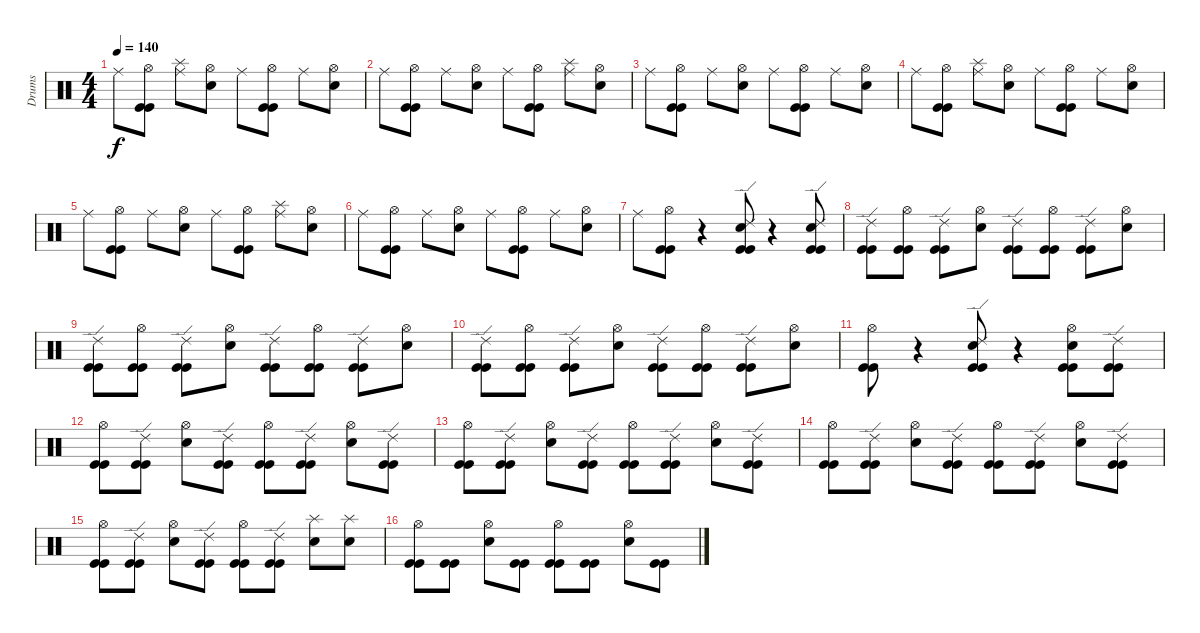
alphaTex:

\track ("Drums" "Drums") {instrument percussion}
\staff {score}
\articulation defaults
\ts (4 4)
\tempo 140
\clef neutral
\ks c "Ride (middle)".8{dy f}
("Hi-Hat (open)" "Kick (hit)" "Kick (hit)").8 ("Ride (middle)" "Splash (hit)").8 ("Hi-Hat (open)" "Electric Snare (hit)").8 "Ride (middle)".8 ("Hi-Hat (open)" "Kick (hit)" "Kick (hit)").8 "Ride (middle)".8 ("Hi-Hat (open)" "Electric Snare (hit)").8 |
"Ride (middle)".8 ("Hi-Hat (open)" "Kick (hit)" "Kick (hit)").8 "Ride (middle)".8 ("Hi-Hat (open)" "Electric Snare (hit)").8 "Ride (middle)".8 ("Hi-Hat (open)" "Kick (hit)" "Kick (hit)").8 ("Ride (middle)" "Splash (hit)").8 ("Hi-Hat (open)" "Electric Snare (hit)").8 |
"Ride (middle)".8 ("Hi-Hat (open)" "Kick (hit)" "Kick (hit)").8 "Ride (middle)".8 ("Hi-Hat (open)" "Electric Snare (hit)").8 "Ride (middle)".8 ("Hi-Hat (open)" "Kick (hit)" "Kick (hit)").8 "Ride (middle)".8 ("Hi-Hat (open)" "Electric Snare (hit)").8 |
"Ride (middle)".8 ("Hi-Hat (open)" "Kick (hit)" "Kick (hit)").8 ("Ride (middle)" "Splash (hit)").8 ("Hi-Hat (open)" "Electric Snare (hit)").8 "Ride (middle)".8 ("Hi-Hat (open)" "Kick (hit)" "Kick (hit)").8 "Ride (middle)".8 ("Hi-Hat (open)" "Electric Snare (hit)").8 |
"Ride (middle)".8 ("Hi-Hat (open)" "Kick (hit)" "Kick (hit)").8 "Ride (middle)".8 ("Hi-Hat (open)" "Electric Snare (hit)").8 "Ride (middle)".8 ("Hi-Hat (open)" "Kick (hit)" "Kick (hit)").8 ("Ride (middle)" "Splash (hit)").8 ("Hi-Hat (open)" "Electric Snare (hit)").8 |
"Ride (middle)".8 ("Hi-Hat (open)" "Kick (hit)" "Kick (hit)").8 "Ride (middle)".8 ("Hi-Hat (open)" "Electric Snare (hit)").8 "Ride (middle)".8 ("Hi-Hat (open)" "Kick (hit)" "Kick (hit)").8 "Ride (middle)".8 ("Hi-Hat (open)" "Electric Snare (hit)").8 |
"Ride (middle)".8 ("Hi-Hat (open)" "Kick (hit)" "Kick (hit)").8 r.4 ("Ride (edge) 2" "Electric Snare (hit)" "Kick (hit)" "Kick (hit)").8 r.4 ("Ride (edge) 2" "Electric Snare (hit)" "Kick (hit)" "Kick (hit)").8 |
("Ride (edge) 2" "Kick (hit)" "Kick (hit)").8 ("Hi-Hat (open)" "Kick (hit)" "Kick (hit)").8 ("Ride (edge) 2" "Kick (hit)" "Kick (hit)").8 ("Hi-Hat (open)" "Electric Snare (hit)").8 ("Ride (edge) 2" "Kick (hit)" "Kick (hit)").8 ("Hi-Hat (open)" "Kick (hit)" "Kick (hit)").8 ("Ride (edge) 2" "Kick (hit)" "Kick (hit)").8 ("Hi-Hat (open)" "Electric Snare (hit)").8 |
("Ride (edge) 2" "Kick (hit)" "Kick (hit)").8 ("Hi-Hat (open)" "Kick (hit)" "Kick (hit)").8 ("Ride (edge) 2" "Kick (hit)" "Kick (hit)").8 ("Hi-Hat (open)" "Electric Snare (hit)").8 ("Ride (edge) 2" "Kick (hit)" "Kick (hit)").8 ("Hi-Hat (open)" "Kick (hit)" "Kick (hit)").8 ("Ride (edge) 2" "Kick (hit)" "Kick (hit)").8 ("Hi-Hat (open)" "Electric Snare (hit)").8 |
("Ride (edge) 2" "Kick (hit)" "Kick (hit)").8 ("Hi-Hat (open)" "Kick (hit)" "Kick (hit)").8 ("Ride (edge) 2" "Kick (hit)" "Kick (hit)").8 ("Hi-Hat (open)" "Electric Snare (hit)").8 ("Ride (edge) 2" "Kick (hit)" "Kick (hit)").8 ("Hi-Hat (open)" "Kick (hit)" "Kick (hit)").8 ("Ride (edge) 2" "Kick (hit)" "Kick (hit)").8 ("Hi-Hat (open)" "Electric Snare (hit)").8 |
("Hi-Hat (open)" "Kick (hit)" "Kick (hit)").8 r.4 ("Ride (edge) 2" "Electric Snare (hit)" "Kick (hit)" "Kick (hit)").8 r.4 ("Hi-Hat (open)" "Electric Snare (hit)" "Kick (hit)" "Kick (hit)").8 ("Ride (edge) 2" "Kick (hit)" "Kick (hit)").8 |
("Hi-Hat (open)" "Kick (hit)" "Kick (hit)").8 ("Ride (edge) 2" "Kick (hit)" "Kick (hit)").8 ("Hi-Hat (open)" "Electric Snare (hit)").8 ("Ride (edge) 2" "Kick (hit)" "Kick (hit)").8 ("Hi-Hat (open)" "Kick (hit)" "Kick (hit)").8 ("Ride (edge) 2" "Kick (hit)" "Kick (hit)").8 ("Hi-Hat (open)" "Electric Snare (hit)").8 ("Ride (edge) 2" "Kick (hit)" "Kick (hit)").8 |
("Hi-Hat (open)" "Kick (hit)" "Kick (hit)").8 ("Ride (edge) 2" "Kick (hit)" "Kick (hit)").8 ("Hi-Hat (open)" "Electric Snare (hit)").8 ("Ride (edge) 2" "Kick (hit)" "Kick (hit)").8 ("Hi-Hat (open)" "Kick (hit)" "Kick (hit)").8 ("Ride (edge) 2" "Kick (hit)" "Kick (hit)").8 ("Hi-Hat (open)" "Electric Snare (hit)").8 ("Ride (edge) 2" "Kick (hit)" "Kick (hit)").8 |
("Hi-Hat (open)" "Kick (hit)" "Kick (hit)").8 ("Ride (edge) 2" "Kick (hit)" "Kick (hit)").8 ("Hi-Hat (open)" "Electric Snare (hit)").8 ("Ride (edge) 2" "Kick (hit)" "Kick (hit)").8 ("Hi-Hat (open)" "Kick (hit)" "Kick (hit)").8 ("Ride (edge) 2" "Kick (hit)" "Kick (hit)").8 ("Hi-Hat (open)" "Electric Snare (hit)").8 ("Ride (edge) 2" "Kick (hit)" "Kick (hit)").8 |
("Hi-Hat (open)" "Kick (hit)" "Kick (hit)").8 ("Ride (edge) 2" "Kick (hit)" "Kick (hit)").8 ("Hi-Hat (open)" "Electric Snare (hit)").8 ("Ride (edge) 2" "Kick (hit)" "Kick (hit)").8 ("Hi-Hat (open)" "Kick (hit)" "Kick (hit)").8 ("Ride (edge) 2" "Kick (hit)" "Kick (hit)").8 ("Splash (hit)" "Electric Snare (hit)").8 ("Splash (hit)" "Electric Snare (hit)").8 |
("Hi-Hat (open)" "Kick (hit)" "Kick (hit)").8 ("Kick (hit)" "Kick (hit)").8 ("Hi-Hat (open)" "Electric Snare (hit)").8 ("Kick (hit)" "Kick (hit)").8 ("Hi-Hat (open)" "Kick (hit)" "Kick (hit)").8 ("Kick (hit)" "Kick (hit)").8 ("Hi-Hat (open)" "Electric Snare (hit)").8 ("Kick (hit)" "Kick (hit)").8
